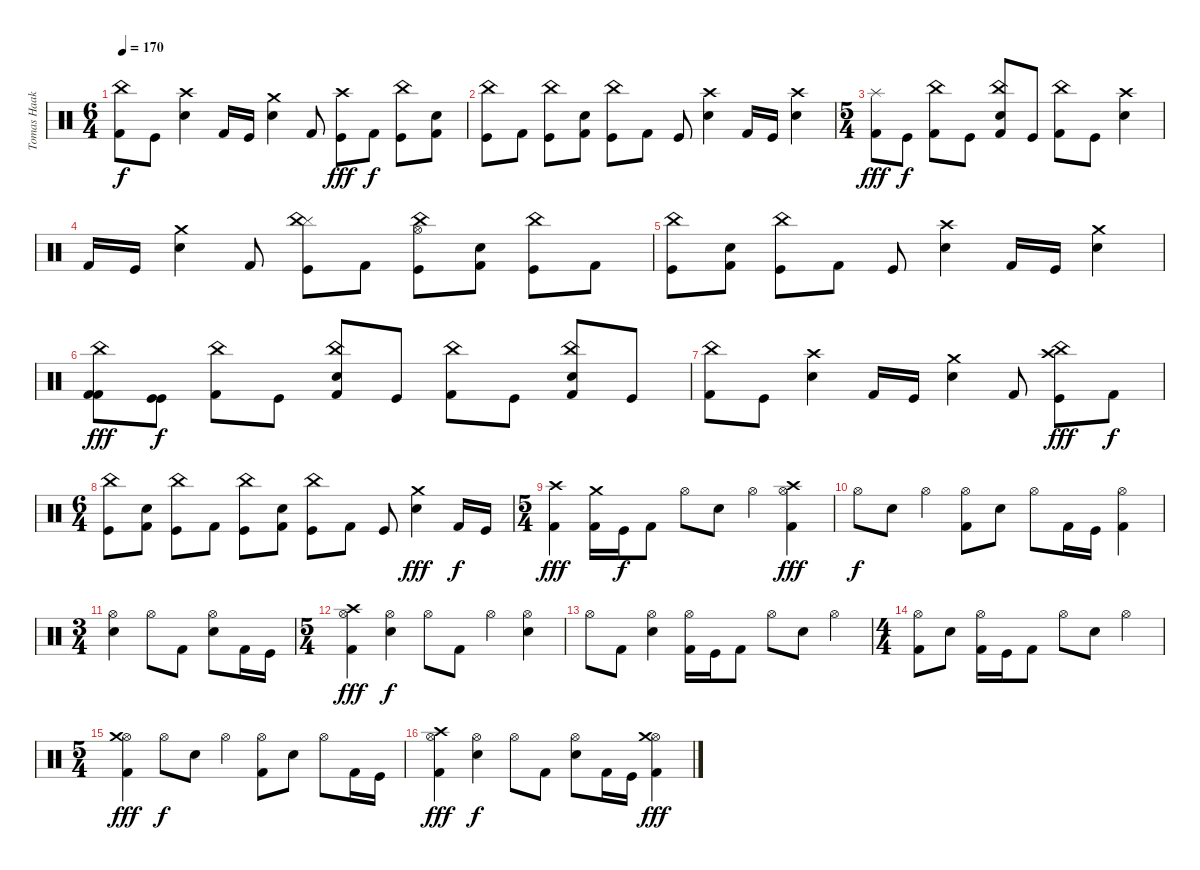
\track ("Tomas Haake" "Tomas Haak") {instrument percussion}
\staff {score}
\articulation defaults
\ts (6 4)
\tempo 170
\clef neutral
\ks c
("Kick (hit) 2" "China (hit)").8{dy f} "Kick (hit)".8 ("Snare (hit) 2" "Crash high (hit)").4 "Kick (hit) 2".16 "Kick (hit)".16 ("Snare (hit) 2" "Crash medium (hit)").4 "Kick (hit) 2".8 ("Kick (hit)" "Crash high (hit)").8{dy fff} "Kick (hit) 2".8{dy f} ("Kick (hit)" "China (hit)").8 ("Kick (hit) 2" "Snare (hit) 2").8 |
("Kick (hit)" "China (hit)").8 "Kick (hit) 2".8 ("Kick (hit)" "China (hit)").8 ("Kick (hit) 2" "Snare (hit) 2").8 ("Kick (hit)" "China (hit)").8 "Kick (hit) 2".8 "Kick (hit)".8 ("Snare (hit) 2" "Crash high (hit)").4 "Kick (hit) 2".16 "Kick (hit)".16 ("Crash high (hit)" "Snare (hit) 2").4 |
\ts (5 4)
("Kick (hit) 2" "Splash (hit)").8{dy fff} "Kick (hit)".8{dy f} ("Kick (hit) 2" "China (hit)").8 "Kick (hit)".8 ("Kick (hit) 2" "Snare (hit) 2" "China (hit)").8 "Kick (hit)".8 ("Kick (hit) 2" "China (hit)").8 "Kick (hit)".8 ("Snare (hit) 2" "Crash high (hit)").4 |
"Kick (hit) 2".16 "Kick (hit)".16 ("Snare (hit) 2" "Crash medium (hit)").4 "Kick (hit) 2".8 ("Cymbal (hit)" "Kick (hit)" "China (hit)").8 "Kick (hit) 2".8 ("Kick (hit)" "Hi-Hat (open)" "China (hit)").8 ("Kick (hit) 2" "Snare (hit) 2").8 ("Kick (hit)" "China (hit)").8 "Kick (hit) 2".8 |
("Kick (hit)" "China (hit)").8 ("Kick (hit) 2" "Snare (hit) 2").8 ("Kick (hit)" "China (hit)").8 "Kick (hit) 2".8 "Kick (hit)".8 ("Snare (hit) 2" "Crash high (hit)").4 "Kick (hit) 2".16 "Kick (hit)".16 ("Snare (hit) 2" "Crash medium (hit)").4 |
("Kick (hit) 2" "Kick (hit) 2" "China (hit)").8{dy fff} ("Kick (hit)" "Kick (hit)").8{dy f} ("Kick (hit) 2" "China (hit)").8 "Kick (hit)".8 ("Kick (hit) 2" "Snare (hit) 2" "China (hit)").8 "Kick (hit)".8 ("Kick (hit) 2" "China (hit)").8 "Kick (hit)".8 ("Kick (hit) 2" "Snare (hit) 2" "China (hit)").8 "Kick (hit)".8 |
("Kick (hit) 2" "China (hit)").8 "Kick (hit)".8 ("Snare (hit) 2" "Crash high (hit)").4 "Kick (hit) 2".16 "Kick (hit)".16 ("Snare (hit) 2" "Crash medium (hit)").4 "Kick (hit) 2".8 ("Kick (hit)" "Crash high (hit)" "China (hit)").8{dy fff} "Kick (hit) 2".8{dy f} |
\ts (6 4)
("Kick (hit)" "China (hit)").8 ("Kick (hit) 2" "Snare (hit) 2").8 ("Kick (hit)" "China (hit)").8 "Kick (hit) 2".8 ("Kick (hit)" "China (hit)").8 ("Kick (hit) 2" "Snare (hit) 2").8 ("Kick (hit)" "China (hit)").8 "Kick (hit) 2".8 "Kick (hit)".8 ("Snare (hit) 2" "Crash medium (hit)").4{dy fff} "Kick (hit) 2".16{dy f} "Kick (hit)".16 |
\ts (5 4)
("Kick (hit) 2" "Crash high (hit)").4{dy fff} ("Kick (hit) 2" "Crash medium (hit)").16 "Kick (hit)".16{dy f} "Kick (hit) 2".8 "Hi-Hat (open)".8 "Snare (hit) 2".8 "Hi-Hat (open)".4 ("Kick (hit) 2" "Hi-Hat (open)" "Crash high (hit)").4{dy fff} |
"Hi-Hat (open)".8{dy f} "Snare (hit) 2".8 "Hi-Hat (open)".4 ("Kick (hit) 2" "Hi-Hat (open)").8 "Snare (hit) 2".8 "Hi-Hat (open)".8 "Kick (hit) 2".16 "Kick (hit)".16 ("Kick (hit) 2" "Hi-Hat (open)").4 |
\ts (3 4)
("Snare (hit) 2" "Hi-Hat (open)").4 "Hi-Hat (open)".8 "Kick (hit) 2".8 ("Snare (hit) 2" "Hi-Hat (open)").8 "Kick (hit) 2".16 "Kick (hit)".16 |
\ts (5 4)
("Kick (hit) 2" "Hi-Hat (open)" "Crash high (hit)").4{dy fff} ("Snare (hit) 2" "Hi-Hat (open)").4{dy f} "Hi-Hat (open)".8 "Kick (hit) 2".8 "Hi-Hat (open)".4 ("Snare (hit) 2" "Hi-Hat (open)").4 |
"Hi-Hat (open)".8 "Kick (hit) 2".8 ("Snare (hit) 2" "Hi-Hat (open)").4 ("Kick (hit) 2" "Hi-Hat (open)").16 "Kick (hit)".16 "Kick (hit) 2".8 "Hi-Hat (open)".8 "Snare (hit) 2".8 "Hi-Hat (open)".4 |
\ts (4 4)
("Kick (hit) 2" "Hi-Hat (open)").8 "Snare (hit) 2".8 ("Kick (hit) 2" "Hi-Hat (open)").16 "Kick (hit)".16 "Kick (hit) 2".8 "Hi-Hat (open)".8 "Snare (hit) 2".8 "Hi-Hat (open)".4 |
\ts (5 4)
("Kick (hit) 2" "Hi-Hat (open)" "Crash medium (hit)").4{dy fff} "Hi-Hat (open)".8{dy f} "Snare (hit) 2".8 "Hi-Hat (open)".4 ("Kick (hit) 2" "Hi-Hat (open)").8 "Snare (hit) 2".8 "Hi-Hat (open)".8 "Kick (hit) 2".16 "Kick (hit)".16 |
("Kick (hit) 2" "Hi-Hat (open)" "Crash high (hit)").4{dy fff} ("Snare (hit) 2" "Hi-Hat (open)").4{dy f} "Hi-Hat (open)".8 "Kick (hit) 2".8 ("Snare (hit) 2" "Hi-Hat (open)").8 "Kick (hit) 2".16 "Kick (hit)".16 ("Kick (hit) 2" "Hi-Hat (open)" "Crash medium (hit)").4{dy fff}
